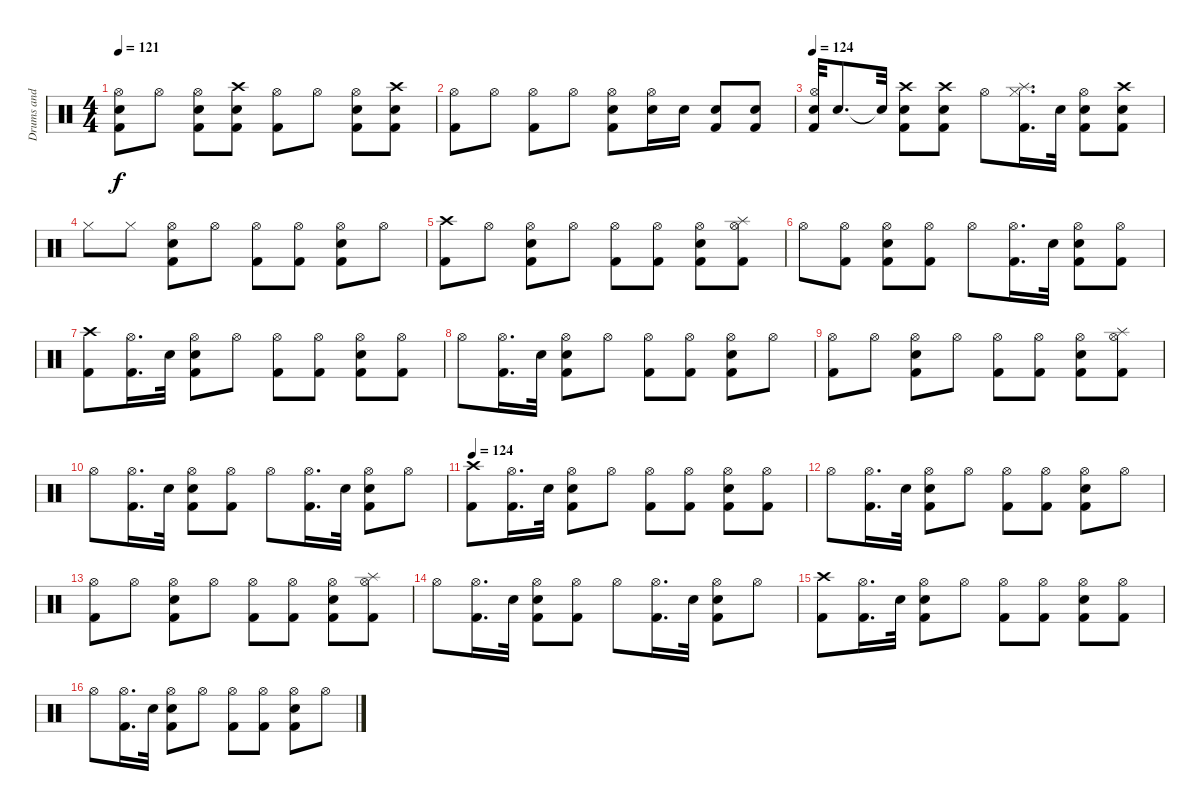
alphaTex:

\track ("Drums and Percussie" "Drums and ") {instrument percussion}
\staff {score}
\articulation defaults
\ts (4 4)
\tempo 121
\clef neutral
\ks c
("Kick (hit) 2" "Hi-Hat (open)" "Snare (hit) 2").8{dy f} "Hi-Hat (open)".8 ("Snare (hit) 2" "Kick (hit) 2" "Hi-Hat (open)").8 ("Snare (hit) 2" "Crash high (hit)" "Kick (hit) 2").8 ("Hi-Hat (open)" "Kick (hit) 2").8 "Hi-Hat (open)".8 ("Hi-Hat (open)" "Kick (hit) 2" "Snare (hit) 2").8 ("Kick (hit) 2" "Crash high (hit)" "Snare (hit) 2").8 |
("Hi-Hat (open)" "Kick (hit) 2").8 "Hi-Hat (open)".8 ("Hi-Hat (open)" "Kick (hit) 2").8 "Hi-Hat (open)".8 ("Snare (hit) 2" "Kick (hit) 2" "Hi-Hat (open)").8 ("Hi-Hat (open)" "Snare (hit) 2").16 "Snare (hit) 2".16 ("Snare (hit) 2" "Kick (hit) 2").8 ("Kick (hit) 2" "Snare (hit) 2").8 |
\tempo 124
("Snare (hit) 2" "Kick (hit) 2" "Hi-Hat (open)").32 "Snare (hit) 2".8{d} "Snare (hit)"{t}.32 ("Kick (hit) 2" "Crash high (hit)" "Snare (hit) 2").8 ("Kick (hit) 2" "Snare (hit) 2" "Crash high (hit)").8 "Hi-Hat (open)".8 ("Kick (hit) 2" "Splash (hit)" "Hi-Hat (closed)").16{d} "Snare (hit) 2".32 ("Kick (hit) 2" "Snare (hit) 2" "Hi-Hat (open)").8 ("Crash high (hit)" "Kick (hit) 2" "Snare (hit) 2").8 |
"Hi-Hat (closed)".8 "Hi-Hat (closed)".8 ("Kick (hit) 2" "Snare (hit) 2" "Hi-Hat (open)").8 "Hi-Hat (open)".8 ("Kick (hit) 2" "Hi-Hat (open)").8 ("Kick (hit) 2" "Hi-Hat (open)").8 ("Hi-Hat (open)" "Kick (hit) 2" "Snare (hit) 2").8 "Hi-Hat (open)".8 |
("Kick (hit) 2" "Crash high (hit)").8 "Hi-Hat (open)".8 ("Kick (hit) 2" "Hi-Hat (open)" "Snare (hit) 2").8 "Hi-Hat (open)".8 ("Kick (hit) 2" "Hi-Hat (open)").8 ("Kick (hit) 2" "Hi-Hat (open)").8 ("Kick (hit) 2" "Hi-Hat (open)" "Snare (hit) 2").8 ("Hi-Hat (open)" "Kick (hit) 2" "Splash (hit)").8 |
"Hi-Hat (open)".8 ("Hi-Hat (open)" "Kick (hit) 2").8 ("Kick (hit) 2" "Hi-Hat (open)" "Snare (hit) 2").8 ("Kick (hit) 2" "Hi-Hat (open)").8 "Hi-Hat (open)".8 ("Hi-Hat (open)" "Kick (hit) 2").16{d} "Snare (hit) 2".32 ("Kick (hit) 2" "Hi-Hat (open)" "Snare (hit) 2").8 ("Kick (hit) 2" "Hi-Hat (open)").8 |
("Kick (hit) 2" "Crash high (hit)").8 ("Hi-Hat (open)" "Kick (hit) 2").16{d} "Snare (hit) 2".32 ("Hi-Hat (open)" "Snare (hit) 2" "Kick (hit) 2").8 "Hi-Hat (open)".8 ("Kick (hit) 2" "Hi-Hat (open)").8 ("Hi-Hat (open)" "Kick (hit) 2").8 ("Snare (hit) 2" "Kick (hit) 2" "Hi-Hat (open)").8 ("Kick (hit) 2" "Hi-Hat (open)").8 |
"Hi-Hat (open)".8 ("Kick (hit) 2" "Hi-Hat (open)").16{d} "Snare (hit) 2".32 ("Hi-Hat (open)" "Snare (hit) 2" "Kick (hit) 2").8 "Hi-Hat (open)".8 ("Kick (hit) 2" "Hi-Hat (open)").8 ("Hi-Hat (open)" "Kick (hit) 2").8 ("Kick (hit) 2" "Snare (hit) 2" "Hi-Hat (open)").8 "Hi-Hat (open)".8 |
("Hi-Hat (open)" "Kick (hit) 2").8 "Hi-Hat (open)".8 ("Snare (hit) 2" "Hi-Hat (open)" "Kick (hit) 2").8 "Hi-Hat (open)".8 ("Kick (hit) 2" "Hi-Hat (open)").8 ("Kick (hit) 2" "Hi-Hat (open)").8 ("Kick (hit) 2" "Hi-Hat (open)" "Snare (hit) 2").8 ("Hi-Hat (open)" "Kick (hit) 2" "Splash (hit)").8 |
"Hi-Hat (open)".8 ("Kick (hit) 2" "Hi-Hat (open)").16{d} "Snare (hit) 2".32 ("Hi-Hat (open)" "Kick (hit) 2" "Snare (hit) 2").8 ("Kick (hit) 2" "Hi-Hat (open)").8 "Hi-Hat (open)".8 ("Kick (hit) 2" "Hi-Hat (open)").16{d} "Snare (hit) 2".32 ("Hi-Hat (open)" "Snare (hit) 2" "Kick (hit) 2").8 "Hi-Hat (open)".8 |
\tempo 124
("Kick (hit) 2" "Crash high (hit)").8 ("Hi-Hat (open)" "Kick (hit) 2").16{d} "Snare (hit) 2".32 ("Hi-Hat (open)" "Snare (hit) 2" "Kick (hit) 2").8 "Hi-Hat (open)".8 ("Kick (hit) 2" "Hi-Hat (open)").8 ("Hi-Hat (open)" "Kick (hit) 2").8 ("Snare (hit) 2" "Kick (hit) 2" "Hi-Hat (open)").8 ("Kick (hit) 2" "Hi-Hat (open)").8 |
"Hi-Hat (open)".8 ("Kick (hit) 2" "Hi-Hat (open)").16{d} "Snare (hit) 2".32 ("Hi-Hat (open)" "Snare (hit) 2" "Kick (hit) 2").8 "Hi-Hat (open)".8 ("Kick (hit) 2" "Hi-Hat (open)").8 ("Hi-Hat (open)" "Kick (hit) 2").8 ("Kick (hit) 2" "Snare (hit) 2" "Hi-Hat (open)").8 "Hi-Hat (open)".8 |
("Hi-Hat (open)" "Kick (hit) 2").8 "Hi-Hat (open)".8 ("Snare (hit) 2" "Hi-Hat (open)" "Kick (hit) 2").8 "Hi-Hat (open)".8 ("Kick (hit) 2" "Hi-Hat (open)").8 ("Kick (hit) 2" "Hi-Hat (open)").8 ("Kick (hit) 2" "Hi-Hat (open)" "Snare (hit) 2").8 ("Hi-Hat (open)" "Kick (hit) 2" "Splash (hit)").8 |
"Hi-Hat (open)".8 ("Kick (hit) 2" "Hi-Hat (open)").16{d} "Snare (hit) 2".32 ("Hi-Hat (open)" "Kick (hit) 2" "Snare (hit) 2").8 ("Kick (hit) 2" "Hi-Hat (open)").8 "Hi-Hat (open)".8 ("Kick (hit) 2" "Hi-Hat (open)").16{d} "Snare (hit) 2".32 ("Hi-Hat (open)" "Snare (hit) 2" "Kick (hit) 2").8 "Hi-Hat (open)".8 |
("Kick (hit) 2" "Crash high (hit)").8 ("Hi-Hat (open)" "Kick (hit) 2").16{d} "Snare (hit) 2".32 ("Hi-Hat (open)" "Snare (hit) 2" "Kick (hit) 2").8 "Hi-Hat (open)".8 ("Kick (hit) 2" "Hi-Hat (open)").8 ("Hi-Hat (open)" "Kick (hit) 2").8 ("Snare (hit) 2" "Kick (hit) 2" "Hi-Hat (open)").8 ("Kick (hit) 2" "Hi-Hat (open)").8 |
"Hi-Hat (open)".8 ("Kick (hit) 2" "Hi-Hat (open)").16{d} "Snare (hit) 2".32 ("Hi-Hat (open)" "Snare (hit) 2" "Kick (hit) 2").8 "Hi-Hat (open)".8 ("Kick (hit) 2" "Hi-Hat (open)").8 ("Hi-Hat (open)" "Kick (hit) 2").8 ("Kick (hit) 2" "Snare (hit) 2" "Hi-Hat (open)").8 "Hi-Hat (open)".8
